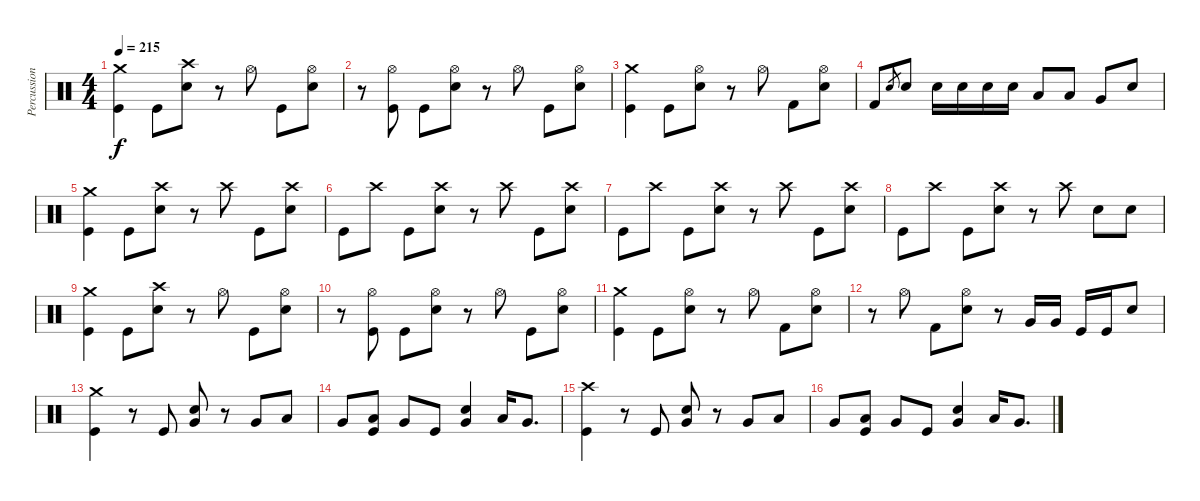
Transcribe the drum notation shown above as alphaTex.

\track ("Percussion" "Percussion") {instrument percussion}
\staff {score}
\articulation defaults
\ts (4 4)
\tempo 215
\clef neutral
\ks c
("Crash medium (hit)" "Kick (hit)").4{dy f} "Kick (hit)".8 ("Crash high (hit)" "Electric Snare (hit)").8 r.8 "Hi-Hat (open)".8 "Kick (hit)".8 ("Hi-Hat (open)" "Electric Snare (hit)").8 |
r.8 ("Hi-Hat (open)" "Kick (hit)").8 "Kick (hit)".8 ("Hi-Hat (open)" "Electric Snare (hit)").8 r.8 "Hi-Hat (open)".8 "Kick (hit)".8 ("Hi-Hat (open)" "Electric Snare (hit)").8 |
("Crash medium (hit)" "Kick (hit)").4 "Kick (hit)".8 ("Hi-Hat (open)" "Electric Snare (hit)").8 r.8 "Hi-Hat (open)".8 "Kick (hit) 2".8 ("Hi-Hat (open)" "Electric Snare (hit)").8 |
"Kick (hit) 2".8 "Electric Snare (hit)".8{gr} "Electric Snare (hit)".8 "Electric Snare (hit)".16 "Electric Snare (hit)".16 "Electric Snare (hit)".16 "Electric Snare (hit)".16 "Low Tom (hit)".8 "Low Tom (hit)".8 "Very Low Tom (hit)".8 "Electric Snare (hit)".8 |
("Crash medium (hit)" "Kick (hit)").4 "Kick (hit)".8 ("Crash high (hit)" "Electric Snare (hit)").8 r.8 "Crash high (hit)".8 "Kick (hit)".8 ("Crash high (hit)" "Electric Snare (hit)").8 |
"Kick (hit)".8 "Crash high (hit)".8 "Kick (hit)".8 ("Crash high (hit)" "Electric Snare (hit)").8 r.8 "Crash high (hit)".8 "Kick (hit)".8 ("Crash high (hit)" "Electric Snare (hit)").8 |
"Kick (hit)".8 "Crash high (hit)".8 "Kick (hit)".8 ("Crash high (hit)" "Electric Snare (hit)").8 r.8 "Crash high (hit)".8 "Kick (hit)".8 ("Crash high (hit)" "Electric Snare (hit)").8 |
"Kick (hit)".8 "Crash high (hit)".8 "Kick (hit)".8 ("Crash high (hit)" "Electric Snare (hit)").8 r.8 "Crash high (hit)".8 "Electric Snare (hit)".8 "Electric Snare (hit)".8 |
("Crash medium (hit)" "Kick (hit)").4 "Kick (hit)".8 ("Crash high (hit)" "Electric Snare (hit)").8 r.8 "Hi-Hat (open)".8 "Kick (hit)".8 ("Hi-Hat (open)" "Electric Snare (hit)").8 |
r.8 ("Hi-Hat (open)" "Kick (hit)").8 "Kick (hit)".8 ("Hi-Hat (open)" "Electric Snare (hit)").8 r.8 "Hi-Hat (open)".8 "Kick (hit)".8 ("Hi-Hat (open)" "Electric Snare (hit)").8 |
("Crash medium (hit)" "Kick (hit)").4 "Kick (hit)".8 ("Hi-Hat (open)" "Electric Snare (hit)").8 r.8 "Hi-Hat (open)".8 "Kick (hit) 2".8 ("Hi-Hat (open)" "Electric Snare (hit)").8 |
r.8 "Hi-Hat (open)".8 "Kick (hit) 2".8 ("Hi-Hat (open)" "Electric Snare (hit)").8 r.8 "Very Low Tom (hit)".16 "Very Low Tom (hit)".16 "Kick (hit)".16 "Kick (hit)".16 "Electric Snare (hit)".8 |
("Crash medium (hit)" "Kick (hit)").4 r.8 "Kick (hit)".8 ("Very Low Tom (hit)" "Electric Snare (hit)").8 r.8 "Very Low Tom (hit)".8 "Low Tom (hit)".8 |
"Very Low Tom (hit)".8 ("Low Tom (hit)" "Kick (hit)").8 "Very Low Tom (hit)".8 "Kick (hit)".8 ("Very Low Tom (hit)" "Electric Snare (hit)").4 "Low Tom (hit)".16 "Very Low Tom (hit)".8{d} |
("Crash high (hit)" "Kick (hit)").4 r.8 "Kick (hit)".8 ("Very Low Tom (hit)" "Electric Snare (hit)").8 r.8 "Very Low Tom (hit)".8 "Low Tom (hit)".8 |
"Very Low Tom (hit)".8 ("Low Tom (hit)" "Kick (hit)").8 "Very Low Tom (hit)".8 "Kick (hit)".8 ("Very Low Tom (hit)" "Electric Snare (hit)").4 "Low Tom (hit)".16 "Very Low Tom (hit)".8{d}
